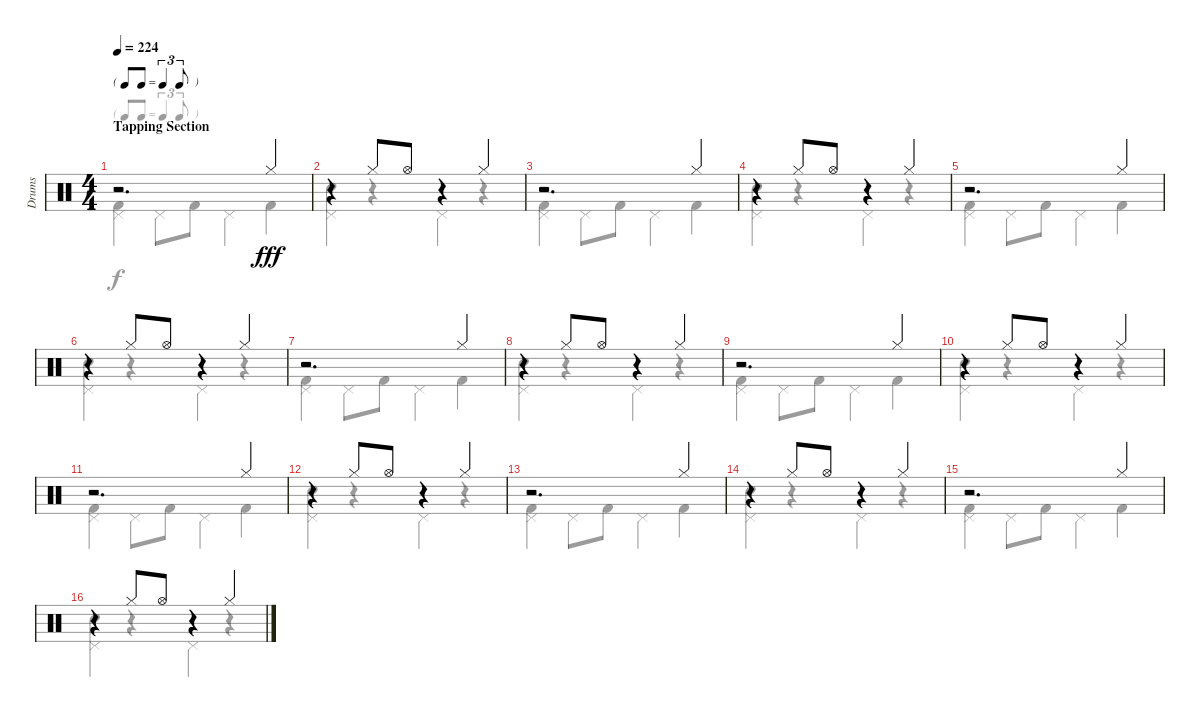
\track ("Drums" "Drums") {instrument percussion}
\staff {score}
\articulation defaults
\voice
\ts (4 4)
\tf triplet8th
\section ("" "Tapping Section")
\tempo 224
\clef neutral
\ks c
r.2{d dy f} "Hi-Hat (closed)".4{dy fff} |
r.4 "Hi-Hat (closed)".8 "Hi-Hat (open)".8 r.4 "Hi-Hat (closed)".4 |
r.2{d} "Hi-Hat (closed)".4 |
r.4 "Hi-Hat (closed)".8 "Hi-Hat (open)".8 r.4 "Hi-Hat (closed)".4 |
r.2{d} "Hi-Hat (closed)".4 |
r.4 "Hi-Hat (closed)".8 "Hi-Hat (open)".8 r.4 "Hi-Hat (closed)".4 |
r.2{d} "Hi-Hat (closed)".4 |
r.4 "Hi-Hat (closed)".8 "Hi-Hat (open)".8 r.4 "Hi-Hat (closed)".4 |
r.2{d} "Hi-Hat (closed)".4 |
r.4 "Hi-Hat (closed)".8 "Hi-Hat (open)".8 r.4 "Hi-Hat (closed)".4 |
r.2{d} "Hi-Hat (closed)".4 |
r.4 "Hi-Hat (closed)".8 "Hi-Hat (open)".8 r.4 "Hi-Hat (closed)".4 |
r.2{d} "Hi-Hat (closed)".4 |
r.4 "Hi-Hat (closed)".8 "Hi-Hat (open)".8 r.4 "Hi-Hat (closed)".4 |
r.2{d} "Hi-Hat (closed)".4 |
r.4 "Hi-Hat (closed)".8 "Hi-Hat (open)".8 r.4 "Hi-Hat (closed)".4
\voice
\clef neutral
\ottava regular
\simile none
\ks c
("Pedal Hi-Hat (hit)" "Kick (hit) 2").4{dy f} "Pedal Hi-Hat (hit)".8 "Kick (hit) 2".8 "Pedal Hi-Hat (hit)".4 "Kick (hit) 2".4 |
("Electric Snare (hit)" "Pedal Hi-Hat (hit)").4 r.4 "Pedal Hi-Hat (hit)".4 r.4 |
("Pedal Hi-Hat (hit)" "Kick (hit) 2").4 "Pedal Hi-Hat (hit)".8 "Kick (hit) 2".8 "Pedal Hi-Hat (hit)".4 "Kick (hit) 2".4 |
("Electric Snare (hit)" "Pedal Hi-Hat (hit)").4 r.4 "Pedal Hi-Hat (hit)".4 r.4 |
("Pedal Hi-Hat (hit)" "Kick (hit) 2").4 "Pedal Hi-Hat (hit)".8 "Kick (hit) 2".8 "Pedal Hi-Hat (hit)".4 "Kick (hit) 2".4 |
("Electric Snare (hit)" "Pedal Hi-Hat (hit)").4 r.4 "Pedal Hi-Hat (hit)".4 r.4 |
("Pedal Hi-Hat (hit)" "Kick (hit) 2").4 "Pedal Hi-Hat (hit)".8 "Kick (hit) 2".8 "Pedal Hi-Hat (hit)".4 "Kick (hit) 2".4 |
("Electric Snare (hit)" "Pedal Hi-Hat (hit)").4 r.4 "Pedal Hi-Hat (hit)".4 r.4 |
("Pedal Hi-Hat (hit)" "Kick (hit) 2").4 "Pedal Hi-Hat (hit)".8 "Kick (hit) 2".8 "Pedal Hi-Hat (hit)".4 "Kick (hit) 2".4 |
("Electric Snare (hit)" "Pedal Hi-Hat (hit)").4 r.4 "Pedal Hi-Hat (hit)".4 r.4 |
("Pedal Hi-Hat (hit)" "Kick (hit) 2").4 "Pedal Hi-Hat (hit)".8 "Kick (hit) 2".8 "Pedal Hi-Hat (hit)".4 "Kick (hit) 2".4 |
("Electric Snare (hit)" "Pedal Hi-Hat (hit)").4 r.4 "Pedal Hi-Hat (hit)".4 r.4 |
("Pedal Hi-Hat (hit)" "Kick (hit) 2").4 "Pedal Hi-Hat (hit)".8 "Kick (hit) 2".8 "Pedal Hi-Hat (hit)".4 "Kick (hit) 2".4 |
("Electric Snare (hit)" "Pedal Hi-Hat (hit)").4 r.4 "Pedal Hi-Hat (hit)".4 r.4 |
("Pedal Hi-Hat (hit)" "Kick (hit) 2").4 "Pedal Hi-Hat (hit)".8 "Kick (hit) 2".8 "Pedal Hi-Hat (hit)".4 "Kick (hit) 2".4 |
("Electric Snare (hit)" "Pedal Hi-Hat (hit)").4 r.4 "Pedal Hi-Hat (hit)".4 r.4
